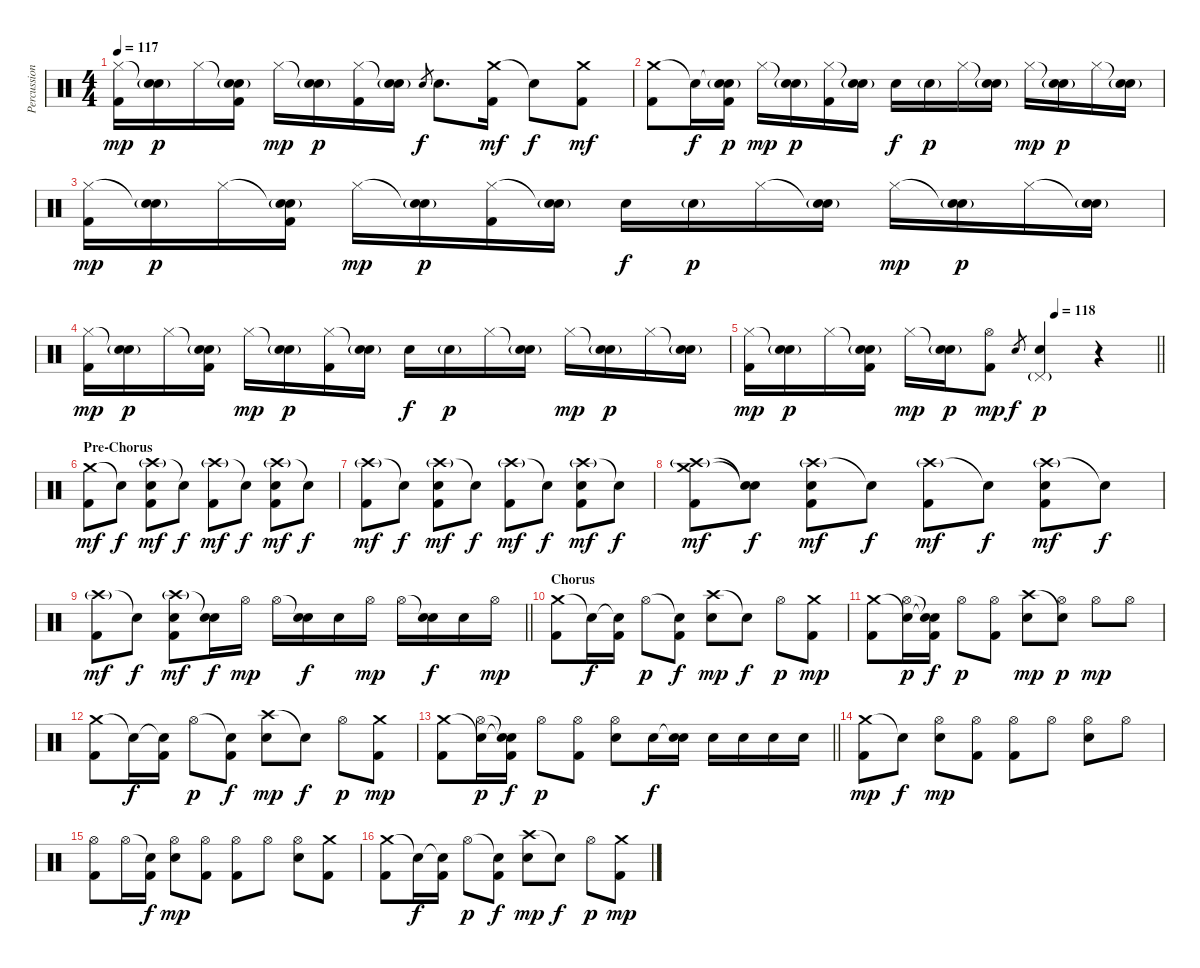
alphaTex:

\track ("Percussions" "Percussion") {instrument percussion}
\staff {score}
\articulation defaults
\ts (4 4)
\tempo 117
\clef neutral
\ks c
("Hi-Hat (closed)" "Kick (hit) 2").16{dy mp} ("Snare (hit)"{t} "Electric Snare (hit)"{g}).16{dy p} "Hi-Hat (closed)".16 ("Snare (hit)"{t} "Electric Snare (hit)"{g} "Kick (hit) 2").16 "Hi-Hat (closed)".16{dy mp} ("Snare (hit)"{t} "Electric Snare (hit)"{g}).16{dy p} ("Hi-Hat (closed)" "Kick (hit) 2").16 ("Snare (hit)"{t} "Electric Snare (hit)"{g}).16 "Electric Snare (hit)".8{gr dy f} "Electric Snare (hit)".8{d} ("Crash medium (hit)" "Kick (hit) 2").16{dy mf} "Snare (hit)"{t}.8{dy f} ("Crash medium (hit)" "Kick (hit) 2").8{dy mf} |
("Crash medium (hit)" "Kick (hit) 2").8 "Snare (hit)"{t}.16{dy f} ("Snare (hit)"{t} "Electric Snare (hit)"{g} "Kick (hit) 2").16{dy p} "Hi-Hat (closed)".16{dy mp} ("Snare (hit)"{t} "Electric Snare (hit)"{g}).16{dy p} ("Hi-Hat (closed)" "Kick (hit) 2").16 ("Snare (hit)"{t} "Electric Snare (hit)"{g}).16 "Electric Snare (hit)".16{dy f} "Electric Snare (hit)"{g}.16{dy p} "Hi-Hat (closed)".16 ("Snare (hit)"{t} "Electric Snare (hit)"{g}).16 "Hi-Hat (closed)".16{dy mp} ("Snare (hit)"{t} "Electric Snare (hit)"{g}).16{dy p} "Hi-Hat (closed)".16 ("Snare (hit)"{t} "Electric Snare (hit)"{g}).16 |
("Hi-Hat (closed)" "Kick (hit) 2").16{dy mp} ("Snare (hit)"{t} "Electric Snare (hit)"{g}).16{dy p} "Hi-Hat (closed)".16 ("Snare (hit)"{t} "Electric Snare (hit)"{g} "Kick (hit) 2").16 "Hi-Hat (closed)".16{dy mp} ("Snare (hit)"{t} "Electric Snare (hit)"{g}).16{dy p} ("Hi-Hat (closed)" "Kick (hit) 2").16 ("Snare (hit)"{t} "Electric Snare (hit)"{g}).16 "Electric Snare (hit)".16{dy f} "Electric Snare (hit)"{g}.16{dy p} "Hi-Hat (closed)".16 ("Snare (hit)"{t} "Electric Snare (hit)"{g}).16 "Hi-Hat (closed)".16{dy mp} ("Snare (hit)"{t} "Electric Snare (hit)"{g}).16{dy p} "Hi-Hat (closed)".16 ("Snare (hit)"{t} "Electric Snare (hit)"{g}).16 |
("Hi-Hat (closed)" "Kick (hit) 2").16{dy mp} ("Snare (hit)"{t} "Electric Snare (hit)"{g}).16{dy p} "Hi-Hat (closed)".16 ("Snare (hit)"{t} "Electric Snare (hit)"{g} "Kick (hit) 2").16 "Hi-Hat (closed)".16{dy mp} ("Snare (hit)"{t} "Electric Snare (hit)"{g}).16{dy p} ("Hi-Hat (closed)" "Kick (hit) 2").16 ("Snare (hit)"{t} "Electric Snare (hit)"{g}).16 "Electric Snare (hit)".16{dy f} "Electric Snare (hit)"{g}.16{dy p} "Hi-Hat (closed)".16 ("Snare (hit)"{t} "Electric Snare (hit)"{g}).16 "Hi-Hat (closed)".16{dy mp} ("Snare (hit)"{t} "Electric Snare (hit)"{g}).16{dy p} "Hi-Hat (closed)".16 ("Snare (hit)"{t} "Electric Snare (hit)"{g}).16 |
\tempo (118 0.75)
\barLineRight lightlight
("Hi-Hat (closed)" "Kick (hit) 2").16{dy mp} ("Snare (hit)"{t} "Electric Snare (hit)"{g}).16{dy p} "Hi-Hat (closed)".16 ("Snare (hit)"{t} "Electric Snare (hit)"{g} "Kick (hit) 2").16 "Hi-Hat (closed)".16{dy mp} ("Snare (hit)"{t} "Electric Snare (hit)"{g}).16{dy p} ("Hi-Hat (open)" "Kick (hit) 2").8{dy mp} "Electric Snare (hit)".8{gr dy f} ("Pedal Hi-Hat (hit)"{g} "Electric Snare (hit)").4{dy p} r.4 |
\section ("" "Pre-Chorus")
("Crash medium (hit)" "Kick (hit) 2").8{dy mf} "Snare (hit)"{t}.8{dy f} ("Crash high (hit)"{g} "Electric Snare (hit)" "Kick (hit) 2").8{dy mf} "Snare (hit)"{t}.8{dy f} ("Crash high (hit)"{g} "Kick (hit) 2").8{dy mf} "Snare (hit)"{t}.8{dy f} ("Crash high (hit)"{g} "Electric Snare (hit)" "Kick (hit) 2").8{dy mf} "Snare (hit)"{t}.8{dy f} |
("Crash high (hit)"{g} "Kick (hit) 2").8{dy mf} "Snare (hit)"{t}.8{dy f} ("Crash high (hit)"{g} "Electric Snare (hit)" "Kick (hit) 2").8{dy mf} "Snare (hit)"{t}.8{dy f} ("Crash high (hit)"{g} "Kick (hit) 2").8{dy mf} "Snare (hit)"{t}.8{dy f} ("Crash high (hit)"{g} "Electric Snare (hit)" "Kick (hit) 2").8{dy mf} "Snare (hit)"{t}.8{dy f} |
("Crash medium (hit)" "Crash high (hit)"{g} "Kick (hit) 2").8{dy mf} ("Snare (hit)"{t} "Snare (hit)"{t}).8{dy f} ("Crash high (hit)"{g} "Electric Snare (hit)" "Kick (hit) 2").8{dy mf} "Snare (hit)"{t}.8{dy f} ("Crash high (hit)"{g} "Kick (hit) 2").8{dy mf} "Snare (hit)"{t}.8{dy f} ("Crash high (hit)"{g} "Electric Snare (hit)" "Kick (hit) 2").8{dy mf} "Snare (hit)"{t}.8{dy f} |
\barLineRight lightlight
("Crash high (hit)"{g} "Kick (hit) 2").8{dy mf} "Snare (hit)"{t}.8{dy f} ("Crash high (hit)"{g} "Electric Snare (hit)" "Kick (hit) 2").8{dy mf} ("Snare (hit)"{t} "Electric Snare (hit)").16{dy f} "Hi-Hat (open)".16{dy mp} "Hi-Hat (open)".16 ("Snare (hit)"{t} "Electric Snare (hit)").16{dy f} "Electric Snare (hit)".16 "Hi-Hat (open)".16{dy mp} "Hi-Hat (open)".16 ("Snare (hit)"{t} "Electric Snare (hit)").16{dy f} "Electric Snare (hit)".16 "Hi-Hat (open)".16{dy mp} |
\section ("" "Chorus")
("Crash medium (hit)" "Kick (hit) 2").8 "Snare (hit)"{t}.16{dy f} ("Snare (hit)"{t} "Kick (hit) 2").16 "Hi-Hat (open)".8{dy p} ("Snare (hit)"{t} "Kick (hit) 2").8{dy f} ("Crash high (hit)" "Electric Snare (hit)").8{dy mp} "Snare (hit)"{t}.8{dy f} "Hi-Hat (open)".8{dy p} ("Crash medium (hit)" "Kick (hit) 2").8{dy mp} |
("Crash medium (hit)" "Kick (hit) 2").8 ("Snare (hit)"{t} "Hi-Hat (open)").16{dy p} ("Snare (hit)"{t} "Snare (hit)"{t} "Kick (hit) 2").16{dy f} "Hi-Hat (open)".8{dy p} ("Hi-Hat (open)" "Kick (hit) 2").8 ("Crash high (hit)" "Electric Snare (hit)").8{dy mp} ("Snare (hit)"{t} "Hi-Hat (open)").8{dy p} "Hi-Hat (open)".8{dy mp} "Hi-Hat (open)".8 |
("Crash medium (hit)" "Kick (hit) 2").8 "Snare (hit)"{t}.16{dy f} ("Snare (hit)"{t} "Kick (hit) 2").16 "Hi-Hat (open)".8{dy p} ("Snare (hit)"{t} "Kick (hit) 2").8{dy f} ("Crash high (hit)" "Electric Snare (hit)").8{dy mp} "Snare (hit)"{t}.8{dy f} "Hi-Hat (open)".8{dy p} ("Crash medium (hit)" "Kick (hit) 2").8{dy mp} |
\barLineRight lightlight
("Crash medium (hit)" "Kick (hit) 2").8 ("Snare (hit)"{t} "Hi-Hat (open)").16{dy p} ("Snare (hit)"{t} "Snare (hit)"{t} "Kick (hit) 2").16{dy f} "Hi-Hat (open)".8{dy p} ("Hi-Hat (open)" "Kick (hit) 2").8 ("Hi-Hat (open)" "Electric Snare (hit)").8 "Electric Snare (hit)".16{dy f} ("Snare (hit)"{t} "Electric Snare (hit)").16 "Electric Snare (hit)".16 "Electric Snare (hit)".16 "Electric Snare (hit)".16 "Electric Snare (hit)".16 |
("Crash medium (hit)" "Kick (hit) 2").8{dy mp} "Snare (hit)"{t}.8{dy f} ("Hi-Hat (open)" "Electric Snare (hit)").8{dy mp} ("Hi-Hat (open)" "Kick (hit) 2").8 ("Hi-Hat (open)" "Kick (hit) 2").8 "Hi-Hat (open)".8 ("Hi-Hat (open)" "Electric Snare (hit)").8 "Hi-Hat (open)".8 |
("Hi-Hat (open)" "Kick (hit) 2").8 "Hi-Hat (open)".16 ("Snare (hit)"{t} "Kick (hit) 2").16{dy f} ("Hi-Hat (open)" "Electric Snare (hit)").8{dy mp} ("Hi-Hat (open)" "Kick (hit) 2").8 ("Hi-Hat (open)" "Kick (hit) 2").8 "Hi-Hat (open)".8 ("Hi-Hat (open)" "Electric Snare (hit)").8 ("Crash medium (hit)" "Kick (hit) 2").8 |
("Crash medium (hit)" "Kick (hit) 2").8 "Snare (hit)"{t}.16{dy f} ("Snare (hit)"{t} "Kick (hit) 2").16 "Hi-Hat (open)".8{dy p} ("Snare (hit)"{t} "Kick (hit) 2").8{dy f} ("Crash high (hit)" "Electric Snare (hit)").8{dy mp} "Snare (hit)"{t}.8{dy f} "Hi-Hat (open)".8{dy p} ("Crash medium (hit)" "Kick (hit) 2").8{dy mp}
